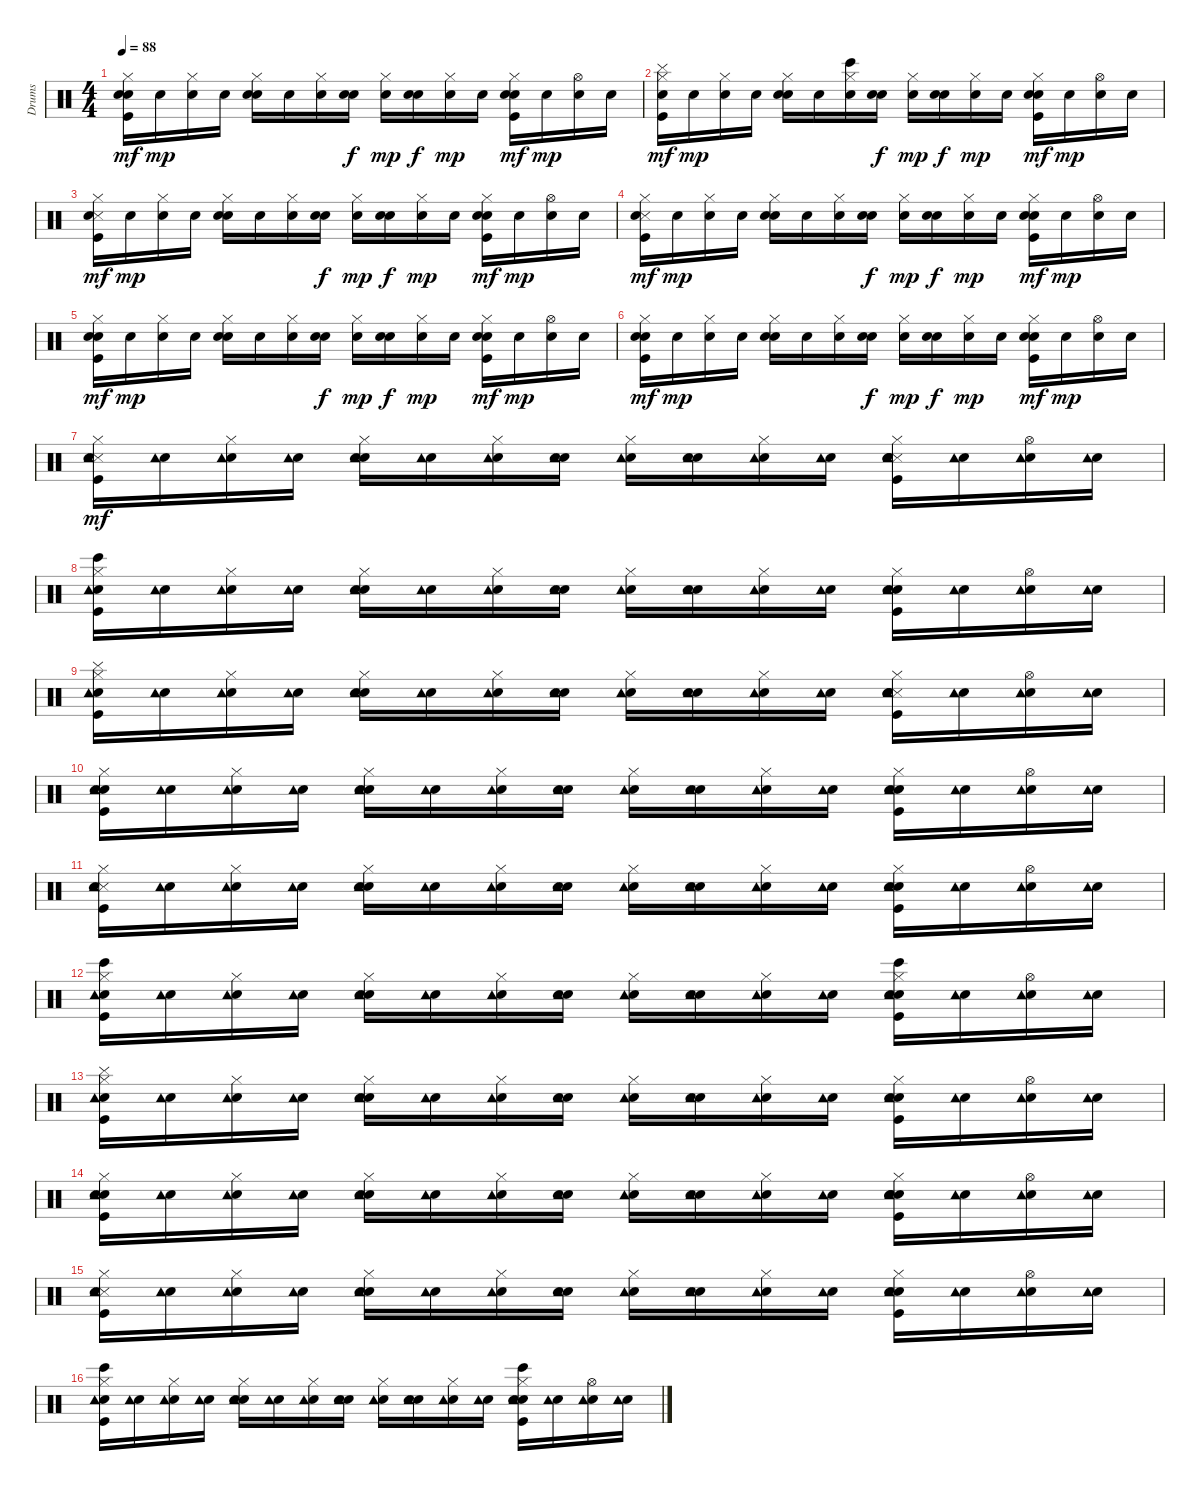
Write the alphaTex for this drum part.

\track ("Drums" "Drums") {instrument percussion}
\staff {score}
\articulation defaults
\ts (4 4)
\tempo 88
\clef neutral
\ks c
("Snare (hit) 2" "Snare (hit) 2" "Hi-Hat (closed)" "Kick (hit)").16{dy mf} "Snare (hit) 2".16{dy mp} ("Snare (hit) 2" "Hi-Hat (closed)").16 "Snare (hit) 2".16 ("Snare (hit) 2" "Hand Clap (hit)" "Hi-Hat (closed)").16 "Snare (hit) 2".16 ("Snare (hit) 2" "Hi-Hat (closed)").16 ("Snare (hit) 2" "Hand Clap (hit)").16{dy f} ("Snare (hit) 2" "Hi-Hat (closed)").16{dy mp} ("Snare (hit) 2" "Hand Clap (hit)").16{dy f} ("Snare (hit) 2" "Hi-Hat (closed)").16{dy mp} "Snare (hit) 2".16 ("Snare (hit) 2" "Hand Clap (hit)" "Hi-Hat (closed)" "Kick (hit)").16{dy mf} "Snare (hit) 2".16{dy mp} ("Snare (hit) 2" "Hi-Hat (open)").16 "Snare (hit) 2".16 |
("Cymbal (hit)" "Snare (hit) 2" "Hi-Hat (closed)" "Kick (hit)").16{dy mf} "Snare (hit) 2".16{dy mp} ("Snare (hit) 2" "Hi-Hat (closed)").16 "Snare (hit) 2".16 ("Snare (hit) 2" "Hand Clap (hit)" "Hi-Hat (closed)").16 "Snare (hit) 2".16 ("Bongo High (hit)" "Snare (hit) 2" "Hi-Hat (closed)").16 ("Snare (hit) 2" "Hand Clap (hit)").16{dy f} ("Snare (hit) 2" "Hi-Hat (closed)").16{dy mp} ("Snare (hit) 2" "Hand Clap (hit)").16{dy f} ("Snare (hit) 2" "Hi-Hat (closed)").16{dy mp} "Snare (hit) 2".16 ("Snare (hit) 2" "Hand Clap (hit)" "Hi-Hat (closed)" "Kick (hit)").16{dy mf} "Snare (hit) 2".16{dy mp} ("Snare (hit) 2" "Hi-Hat (open)").16 "Snare (hit) 2".16 |
("Metronome (hit)" "Snare (hit) 2" "Hi-Hat (closed)" "Kick (hit)").16{dy mf} "Snare (hit) 2".16{dy mp} ("Snare (hit) 2" "Hi-Hat (closed)").16 "Snare (hit) 2".16 ("Snare (hit) 2" "Hand Clap (hit)" "Hi-Hat (closed)").16 "Snare (hit) 2".16 ("Snare (hit) 2" "Hi-Hat (closed)").16 ("Snare (hit) 2" "Hand Clap (hit)").16{dy f} ("Snare (hit) 2" "Hi-Hat (closed)").16{dy mp} ("Snare (hit) 2" "Hand Clap (hit)").16{dy f} ("Snare (hit) 2" "Hi-Hat (closed)").16{dy mp} "Snare (hit) 2".16 ("Snare (hit) 2" "Hand Clap (hit)" "Hi-Hat (closed)" "Kick (hit)").16{dy mf} "Snare (hit) 2".16{dy mp} ("Snare (hit) 2" "Hi-Hat (open)").16 "Snare (hit) 2".16 |
("Snare (side stick) 3" "Snare (hit) 2" "Hi-Hat (closed)" "Kick (hit)").16{dy mf} "Snare (hit) 2".16{dy mp} ("Snare (hit) 2" "Hi-Hat (closed)").16 "Snare (hit) 2".16 ("Snare (hit) 2" "Hand Clap (hit)" "Hi-Hat (closed)").16 "Snare (hit) 2".16 ("Snare (hit) 2" "Hi-Hat (closed)").16 ("Snare (hit) 2" "Hand Clap (hit)").16{dy f} ("Snare (hit) 2" "Hi-Hat (closed)").16{dy mp} ("Snare (hit) 2" "Hand Clap (hit)").16{dy f} ("Snare (hit) 2" "Hi-Hat (closed)").16{dy mp} "Snare (hit) 2".16 ("Snare (hit) 2" "Hand Clap (hit)" "Hi-Hat (closed)" "Kick (hit)").16{dy mf} "Snare (hit) 2".16{dy mp} ("Snare (hit) 2" "Hi-Hat (open)").16 "Snare (hit) 2".16 |
("Snare (hit) 2" "Snare (hit) 2" "Hi-Hat (closed)" "Kick (hit)").16{dy mf} "Snare (hit) 2".16{dy mp} ("Snare (hit) 2" "Hi-Hat (closed)").16 "Snare (hit) 2".16 ("Snare (hit) 2" "Hand Clap (hit)" "Hi-Hat (closed)").16 "Snare (hit) 2".16 ("Snare (hit) 2" "Hi-Hat (closed)").16 ("Snare (hit) 2" "Hand Clap (hit)").16{dy f} ("Snare (hit) 2" "Hi-Hat (closed)").16{dy mp} ("Snare (hit) 2" "Hand Clap (hit)").16{dy f} ("Snare (hit) 2" "Hi-Hat (closed)").16{dy mp} "Snare (hit) 2".16 ("Snare (hit) 2" "Hand Clap (hit)" "Hi-Hat (closed)" "Kick (hit)").16{dy mf} "Snare (hit) 2".16{dy mp} ("Snare (hit) 2" "Hi-Hat (open)").16 "Snare (hit) 2".16 |
("Snare (hit) 2" "Snare (hit) 2" "Hi-Hat (closed)" "Kick (hit)").16{dy mf} "Snare (hit) 2".16{dy mp} ("Snare (hit) 2" "Hi-Hat (closed)").16 "Snare (hit) 2".16 ("Snare (hit) 2" "Hand Clap (hit)" "Hi-Hat (closed)").16 "Snare (hit) 2".16 ("Snare (hit) 2" "Hi-Hat (closed)").16 ("Snare (hit) 2" "Hand Clap (hit)").16{dy f} ("Snare (hit) 2" "Hi-Hat (closed)").16{dy mp} ("Snare (hit) 2" "Hand Clap (hit)").16{dy f} ("Snare (hit) 2" "Hi-Hat (closed)").16{dy mp} "Snare (hit) 2".16 ("Snare (hit) 2" "Hand Clap (hit)" "Hi-Hat (closed)" "Kick (hit)").16{dy mf} "Snare (hit) 2".16{dy mp} ("Snare (hit) 2" "Hi-Hat (open)").16 "Snare (hit) 2".16 |
("Metronome (hit)" "Snare (hit) 2" "Hi-Hat (closed)" "Kick (hit)" "Tambourine (hit)").16{dy mf} ("Snare (hit) 2" "Tambourine (hit)").16 ("Snare (hit) 2" "Hi-Hat (closed)" "Tambourine (hit)").16 ("Snare (hit) 2" "Tambourine (hit)").16 ("Snare (hit) 2" "Hand Clap (hit)" "Hi-Hat (closed)" "Tambourine (hit)").16 ("Snare (hit) 2" "Tambourine (hit)").16 ("Snare (hit) 2" "Hi-Hat (closed)" "Tambourine (hit)").16 ("Snare (hit) 2" "Hand Clap (hit)" "Tambourine (hit)").16 ("Snare (hit) 2" "Hi-Hat (closed)" "Tambourine (hit)").16 ("Snare (hit) 2" "Hand Clap (hit)" "Tambourine (hit)").16 ("Snare (hit) 2" "Hi-Hat (closed)" "Tambourine (hit)").16 ("Snare (hit) 2" "Tambourine (hit)").16 ("Metronome (hit)" "Snare (hit) 2" "Hand Clap (hit)" "Hi-Hat (closed)" "Kick (hit)" "Tambourine (hit)").16 ("Snare (hit) 2" "Tambourine (hit)").16 ("Snare (hit) 2" "Hi-Hat (open)" "Tambourine (hit)").16 ("Snare (hit) 2" "Tambourine (hit)").16 |
("Bongo High (hit)" "Snare (hit) 2" "Hi-Hat (closed)" "Kick (hit)" "Tambourine (hit)").16 ("Snare (hit) 2" "Tambourine (hit)").16 ("Snare (hit) 2" "Hi-Hat (closed)" "Tambourine (hit)").16 ("Snare (hit) 2" "Tambourine (hit)").16 ("Snare (hit) 2" "Hand Clap (hit)" "Hi-Hat (closed)" "Tambourine (hit)").16 ("Snare (hit) 2" "Tambourine (hit)").16 ("Snare (hit) 2" "Hi-Hat (closed)" "Tambourine (hit)").16 ("Snare (hit) 2" "Hand Clap (hit)" "Tambourine (hit)").16 ("Snare (hit) 2" "Hi-Hat (closed)" "Tambourine (hit)").16 ("Snare (hit) 2" "Hand Clap (hit)" "Tambourine (hit)").16 ("Snare (hit) 2" "Hi-Hat (closed)" "Tambourine (hit)").16 ("Snare (hit) 2" "Tambourine (hit)").16 ("Snare (hit) 2" "Hand Clap (hit)" "Hi-Hat (closed)" "Kick (hit)" "Tambourine (hit)").16 ("Snare (hit) 2" "Tambourine (hit)").16 ("Snare (hit) 2" "Hi-Hat (open)" "Tambourine (hit)").16 ("Snare (hit) 2" "Tambourine (hit)").16 |
("Cymbal (hit)" "Snare (hit) 2" "Hi-Hat (closed)" "Kick (hit)" "Tambourine (hit)").16 ("Snare (hit) 2" "Tambourine (hit)").16 ("Snare (hit) 2" "Hi-Hat (closed)" "Tambourine (hit)").16 ("Snare (hit) 2" "Tambourine (hit)").16 ("Snare (hit) 2" "Hand Clap (hit)" "Hi-Hat (closed)" "Tambourine (hit)").16 ("Snare (hit) 2" "Tambourine (hit)").16 ("Snare (hit) 2" "Hi-Hat (closed)" "Tambourine (hit)").16 ("Snare (hit) 2" "Hand Clap (hit)" "Tambourine (hit)").16 ("Snare (hit) 2" "Hi-Hat (closed)" "Tambourine (hit)").16 ("Snare (hit) 2" "Hand Clap (hit)" "Tambourine (hit)").16 ("Snare (hit) 2" "Hi-Hat (closed)" "Tambourine (hit)").16 ("Snare (hit) 2" "Tambourine (hit)").16 ("Metronome (hit)" "Snare (hit) 2" "Hand Clap (hit)" "Hi-Hat (closed)" "Kick (hit)" "Tambourine (hit)").16 ("Snare (hit) 2" "Tambourine (hit)").16 ("Snare (hit) 2" "Hi-Hat (open)" "Tambourine (hit)").16 ("Snare (hit) 2" "Tambourine (hit)").16 |
("Snare (hit)" "Snare (hit) 2" "Hi-Hat (closed)" "Kick (hit)" "Tambourine (hit)").16 ("Snare (hit) 2" "Tambourine (hit)").16 ("Snare (hit) 2" "Hi-Hat (closed)" "Tambourine (hit)").16 ("Snare (hit) 2" "Tambourine (hit)").16 ("Snare (hit) 2" "Hand Clap (hit)" "Hi-Hat (closed)" "Tambourine (hit)").16 ("Snare (hit) 2" "Tambourine (hit)").16 ("Snare (hit) 2" "Hi-Hat (closed)" "Tambourine (hit)").16 ("Snare (hit) 2" "Hand Clap (hit)" "Tambourine (hit)").16 ("Snare (hit) 2" "Hi-Hat (closed)" "Tambourine (hit)").16 ("Snare (hit) 2" "Hand Clap (hit)" "Tambourine (hit)").16 ("Snare (hit) 2" "Hi-Hat (closed)" "Tambourine (hit)").16 ("Snare (hit) 2" "Tambourine (hit)").16 ("Snare (hit) 2" "Hand Clap (hit)" "Hi-Hat (closed)" "Kick (hit)" "Tambourine (hit)").16 ("Snare (hit) 2" "Tambourine (hit)").16 ("Snare (hit) 2" "Hi-Hat (open)" "Tambourine (hit)").16 ("Snare (hit) 2" "Tambourine (hit)").16 |
("Metronome (hit)" "Snare (hit) 2" "Hi-Hat (closed)" "Kick (hit)" "Tambourine (hit)").16 ("Snare (hit) 2" "Tambourine (hit)").16 ("Snare (hit) 2" "Hi-Hat (closed)" "Tambourine (hit)").16 ("Snare (hit) 2" "Tambourine (hit)").16 ("Snare (hit) 2" "Hand Clap (hit)" "Hi-Hat (closed)" "Tambourine (hit)").16 ("Snare (hit) 2" "Tambourine (hit)").16 ("Snare (hit) 2" "Hi-Hat (closed)" "Tambourine (hit)").16 ("Snare (hit) 2" "Hand Clap (hit)" "Tambourine (hit)").16 ("Snare (hit) 2" "Hi-Hat (closed)" "Tambourine (hit)").16 ("Snare (hit) 2" "Hand Clap (hit)" "Tambourine (hit)").16 ("Snare (hit) 2" "Hi-Hat (closed)" "Tambourine (hit)").16 ("Snare (hit) 2" "Tambourine (hit)").16 ("Snare (hit) 2" "Hand Clap (hit)" "Hi-Hat (closed)" "Kick (hit)" "Tambourine (hit)").16 ("Snare (hit) 2" "Tambourine (hit)").16 ("Snare (hit) 2" "Hi-Hat (open)" "Tambourine (hit)").16 ("Snare (hit) 2" "Tambourine (hit)").16 |
("Bongo High (hit)" "Snare (hit) 2" "Hi-Hat (closed)" "Kick (hit)" "Tambourine (hit)").16 ("Snare (hit) 2" "Tambourine (hit)").16 ("Snare (hit) 2" "Hi-Hat (closed)" "Tambourine (hit)").16 ("Snare (hit) 2" "Tambourine (hit)").16 ("Snare (hit) 2" "Hand Clap (hit)" "Hi-Hat (closed)" "Tambourine (hit)").16 ("Snare (hit) 2" "Tambourine (hit)").16 ("Snare (hit) 2" "Hi-Hat (closed)" "Tambourine (hit)").16 ("Snare (hit) 2" "Hand Clap (hit)" "Tambourine (hit)").16 ("Snare (hit) 2" "Hi-Hat (closed)" "Tambourine (hit)").16 ("Snare (hit) 2" "Hand Clap (hit)" "Tambourine (hit)").16 ("Snare (hit) 2" "Hi-Hat (closed)" "Tambourine (hit)").16 ("Snare (hit) 2" "Tambourine (hit)").16 ("Bongo High (hit)" "Snare (hit) 2" "Hand Clap (hit)" "Hi-Hat (closed)" "Kick (hit)" "Tambourine (hit)").16 ("Snare (hit) 2" "Tambourine (hit)").16 ("Snare (hit) 2" "Hi-Hat (open)" "Tambourine (hit)").16 ("Snare (hit) 2" "Tambourine (hit)").16 |
("Cymbal (hit)" "Snare (hit) 2" "Hi-Hat (closed)" "Kick (hit)" "Tambourine (hit)").16 ("Snare (hit) 2" "Tambourine (hit)").16 ("Snare (hit) 2" "Hi-Hat (closed)" "Tambourine (hit)").16 ("Snare (hit) 2" "Tambourine (hit)").16 ("Snare (hit) 2" "Hand Clap (hit)" "Hi-Hat (closed)" "Tambourine (hit)").16 ("Snare (hit) 2" "Tambourine (hit)").16 ("Snare (hit) 2" "Hi-Hat (closed)" "Tambourine (hit)").16 ("Snare (hit) 2" "Hand Clap (hit)" "Tambourine (hit)").16 ("Snare (hit) 2" "Hi-Hat (closed)" "Tambourine (hit)").16 ("Snare (hit) 2" "Hand Clap (hit)" "Tambourine (hit)").16 ("Snare (hit) 2" "Hi-Hat (closed)" "Tambourine (hit)").16 ("Snare (hit) 2" "Tambourine (hit)").16 ("Snare (hit) 2" "Hand Clap (hit)" "Hi-Hat (closed)" "Kick (hit)" "Tambourine (hit)").16 ("Snare (hit) 2" "Tambourine (hit)").16 ("Snare (hit) 2" "Hi-Hat (open)" "Tambourine (hit)").16 ("Snare (hit) 2" "Tambourine (hit)").16 |
("Snare (hit) 2" "Snare (hit) 2" "Hi-Hat (closed)" "Kick (hit)" "Tambourine (hit)").16 ("Snare (hit) 2" "Tambourine (hit)").16 ("Snare (hit) 2" "Hi-Hat (closed)" "Tambourine (hit)").16 ("Snare (hit) 2" "Tambourine (hit)").16 ("Snare (hit) 2" "Hand Clap (hit)" "Hi-Hat (closed)" "Tambourine (hit)").16 ("Snare (hit) 2" "Tambourine (hit)").16 ("Snare (hit) 2" "Hi-Hat (closed)" "Tambourine (hit)").16 ("Snare (hit) 2" "Hand Clap (hit)" "Tambourine (hit)").16 ("Snare (hit) 2" "Hi-Hat (closed)" "Tambourine (hit)").16 ("Snare (hit) 2" "Hand Clap (hit)" "Tambourine (hit)").16 ("Snare (hit) 2" "Hi-Hat (closed)" "Tambourine (hit)").16 ("Snare (hit) 2" "Tambourine (hit)").16 ("Snare (hit) 2" "Snare (hit) 2" "Hand Clap (hit)" "Hi-Hat (closed)" "Kick (hit)" "Tambourine (hit)").16 ("Snare (hit) 2" "Tambourine (hit)").16 ("Snare (hit) 2" "Hi-Hat (open)" "Tambourine (hit)").16 ("Snare (hit) 2" "Tambourine (hit)").16 |
("Metronome (hit)" "Snare (hit) 2" "Hi-Hat (closed)" "Kick (hit)" "Tambourine (hit)").16 ("Snare (hit) 2" "Tambourine (hit)").16 ("Snare (hit) 2" "Hi-Hat (closed)" "Tambourine (hit)").16 ("Snare (hit) 2" "Tambourine (hit)").16 ("Snare (hit) 2" "Hand Clap (hit)" "Hi-Hat (closed)" "Tambourine (hit)").16 ("Snare (hit) 2" "Tambourine (hit)").16 ("Snare (hit) 2" "Hi-Hat (closed)" "Tambourine (hit)").16 ("Snare (hit) 2" "Hand Clap (hit)" "Tambourine (hit)").16 ("Snare (hit) 2" "Hi-Hat (closed)" "Tambourine (hit)").16 ("Snare (hit) 2" "Hand Clap (hit)" "Tambourine (hit)").16 ("Snare (hit) 2" "Hi-Hat (closed)" "Tambourine (hit)").16 ("Snare (hit) 2" "Tambourine (hit)").16 ("Snare (hit) 2" "Hand Clap (hit)" "Hi-Hat (closed)" "Kick (hit)" "Tambourine (hit)").16 ("Snare (hit) 2" "Tambourine (hit)").16 ("Snare (hit) 2" "Hi-Hat (open)" "Tambourine (hit)").16 ("Snare (hit) 2" "Tambourine (hit)").16 |
("Bongo High (hit)" "Snare (hit) 2" "Hi-Hat (closed)" "Kick (hit)" "Tambourine (hit)").16 ("Snare (hit) 2" "Tambourine (hit)").16 ("Snare (hit) 2" "Hi-Hat (closed)" "Tambourine (hit)").16 ("Snare (hit) 2" "Tambourine (hit)").16 ("Snare (hit) 2" "Hand Clap (hit)" "Hi-Hat (closed)" "Tambourine (hit)").16 ("Snare (hit) 2" "Tambourine (hit)").16 ("Snare (hit) 2" "Hi-Hat (closed)" "Tambourine (hit)").16 ("Snare (hit) 2" "Hand Clap (hit)" "Tambourine (hit)").16 ("Snare (hit) 2" "Hi-Hat (closed)" "Tambourine (hit)").16 ("Snare (hit) 2" "Hand Clap (hit)" "Tambourine (hit)").16 ("Snare (hit) 2" "Hi-Hat (closed)" "Tambourine (hit)").16 ("Snare (hit) 2" "Tambourine (hit)").16 ("Bongo High (hit)" "Snare (hit) 2" "Hand Clap (hit)" "Hi-Hat (closed)" "Kick (hit)" "Tambourine (hit)").16 ("Snare (hit) 2" "Tambourine (hit)").16 ("Snare (hit) 2" "Hi-Hat (open)" "Tambourine (hit)").16 ("Snare (hit) 2" "Tambourine (hit)").16
